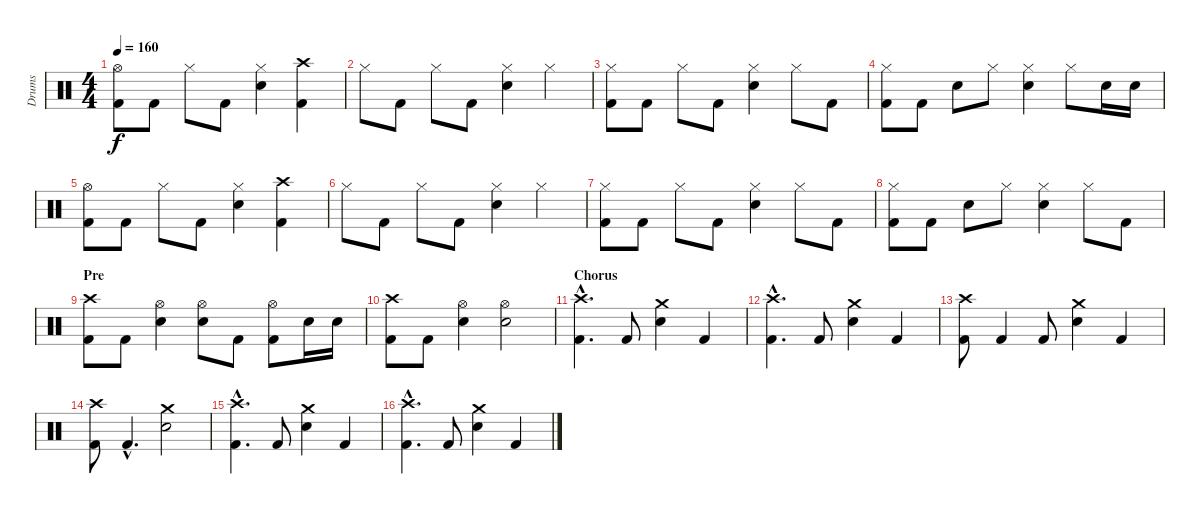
\track ("Drums" "Drums") {instrument percussion}
\staff {score}
\articulation defaults
\ts (4 4)
\tempo 160
\clef neutral
\ks c
("Kick (hit) 2" "Hi-Hat (open)").8{dy f} "Kick (hit) 2".8 "Hi-Hat (closed)".8 "Kick (hit) 2".8 ("Electric Snare (hit)" "Hi-Hat (closed)").4 ("Kick (hit) 2" "Crash high (hit)").4 |
"Hi-Hat (closed)".8 "Kick (hit) 2".8 "Hi-Hat (closed)".8 "Kick (hit) 2".8 ("Electric Snare (hit)" "Hi-Hat (closed)").4 "Hi-Hat (closed)".4 |
("Kick (hit) 2" "Hi-Hat (closed)").8 "Kick (hit) 2".8 "Hi-Hat (closed)".8 "Kick (hit) 2".8 ("Electric Snare (hit)" "Hi-Hat (closed)").4 "Hi-Hat (closed)".8 "Kick (hit) 2".8 |
("Kick (hit) 2" "Hi-Hat (closed)").8 "Kick (hit) 2".8 "Electric Snare (hit)".8 "Hi-Hat (closed)".8 ("Electric Snare (hit)" "Hi-Hat (closed)").4 "Hi-Hat (closed)".8 "Electric Snare (hit)".16 "Electric Snare (hit)".16 |
("Kick (hit) 2" "Hi-Hat (open)").8 "Kick (hit) 2".8 "Hi-Hat (closed)".8 "Kick (hit) 2".8 ("Electric Snare (hit)" "Hi-Hat (closed)").4 ("Kick (hit) 2" "Crash high (hit)").4 |
"Hi-Hat (closed)".8 "Kick (hit) 2".8 "Hi-Hat (closed)".8 "Kick (hit) 2".8 ("Electric Snare (hit)" "Hi-Hat (closed)").4 "Hi-Hat (closed)".4 |
("Kick (hit) 2" "Hi-Hat (closed)").8 "Kick (hit) 2".8 "Hi-Hat (closed)".8 "Kick (hit) 2".8 ("Electric Snare (hit)" "Hi-Hat (closed)").4 "Hi-Hat (closed)".8 "Kick (hit) 2".8 |
("Kick (hit) 2" "Hi-Hat (closed)").8 "Kick (hit) 2".8 "Electric Snare (hit)".8 "Hi-Hat (closed)".8 ("Electric Snare (hit)" "Hi-Hat (closed)").4 "Hi-Hat (closed)".8 "Kick (hit) 2".8 |
\section ("" "Pre")
("Kick (hit) 2" "Crash high (hit)").8 "Kick (hit) 2".8 ("Electric Snare (hit)" "Hi-Hat (open)").4 ("Electric Snare (hit)" "Hi-Hat (open)").8 "Kick (hit) 2".8 ("Kick (hit) 2" "Hi-Hat (open)").8 "Electric Snare (hit)".16 "Electric Snare (hit)".16 |
("Kick (hit) 2" "Crash high (hit)").8 "Kick (hit) 2".8 ("Electric Snare (hit)" "Hi-Hat (open)").4 ("Electric Snare (hit)" "Hi-Hat (open)").2 |
\section ("" "Chorus")
("Kick (hit) 2"{hac} "Crash high (hit)"{hac}).4{d} "Kick (hit) 2".8 ("Electric Snare (hit)" "Crash medium (hit)").4 "Kick (hit) 2".4 |
("Kick (hit) 2"{hac} "Crash high (hit)"{hac}).4{d} "Kick (hit) 2".8 ("Electric Snare (hit)" "Crash medium (hit)").4 "Kick (hit) 2".4 |
("Kick (hit) 2" "Crash high (hit)").8 "Kick (hit) 2".4 "Kick (hit) 2".8 ("Electric Snare (hit)" "Crash medium (hit)").4 "Kick (hit) 2".4 |
("Kick (hit) 2" "Crash high (hit)").8 "Kick (hit) 2"{hac}.4{d} ("Electric Snare (hit)" "Crash medium (hit)").2 |
("Kick (hit) 2"{hac} "Crash high (hit)"{hac}).4{d} "Kick (hit) 2".8 ("Electric Snare (hit)" "Crash medium (hit)").4 "Kick (hit) 2".4 |
("Kick (hit) 2"{hac} "Crash high (hit)"{hac}).4{d} "Kick (hit) 2".8 ("Electric Snare (hit)" "Crash medium (hit)").4 "Kick (hit) 2".4
